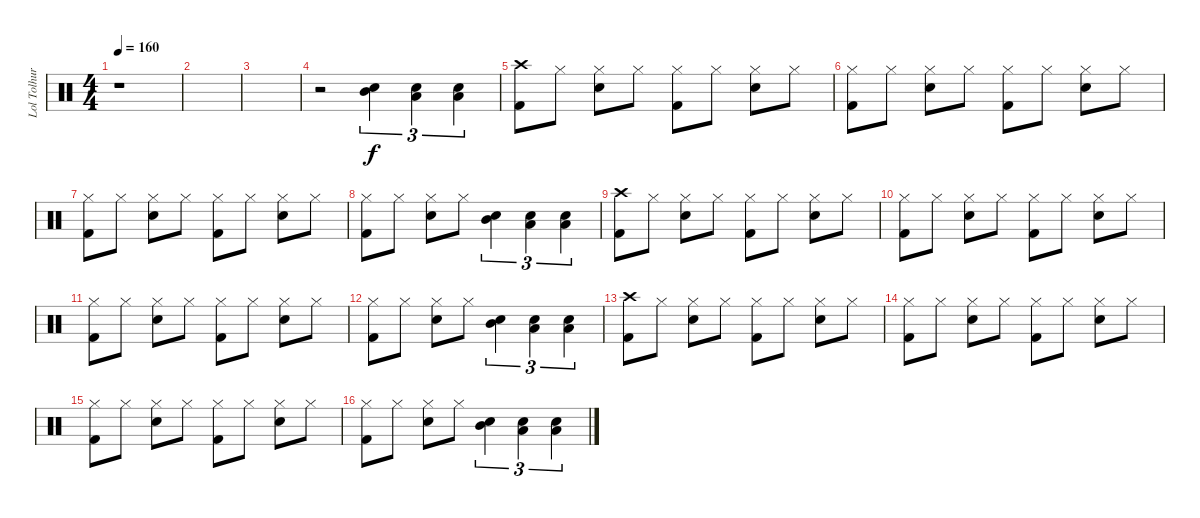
\track ("Lol Tolhurst drums" "Lol Tolhur") {instrument percussion}
\staff {score}
\articulation defaults
\ts (4 4)
\section ("" "")
\tempo 160
\clef neutral
\ks c
r.1{dy f} |
\section ("" "")
|
\section ("" "")
|
r.2 ("Mid Tom (hit)" "Snare (hit) 2").4{tu (3 2)} ("Low Tom (hit)" "Snare (hit) 2").4{tu (3 2)} ("Low Floor Tom (hit)" "Snare (hit) 2").4{tu (3 2)} |
("Crash high (hit)" "Kick (hit) 2").8 "Hi-Hat (closed)".8 ("Hi-Hat (closed)" "Snare (hit) 2").8 "Hi-Hat (closed)".8 ("Hi-Hat (closed)" "Kick (hit) 2").8 "Hi-Hat (closed)".8 ("Hi-Hat (closed)" "Snare (hit) 2").8 "Hi-Hat (closed)".8 |
("Hi-Hat (closed)" "Kick (hit) 2").8 "Hi-Hat (closed)".8 ("Hi-Hat (closed)" "Snare (hit) 2").8 "Hi-Hat (closed)".8 ("Hi-Hat (closed)" "Kick (hit) 2").8 "Hi-Hat (closed)".8 ("Hi-Hat (closed)" "Snare (hit) 2").8 "Hi-Hat (closed)".8 |
("Hi-Hat (closed)" "Kick (hit) 2").8 "Hi-Hat (closed)".8 ("Hi-Hat (closed)" "Snare (hit) 2").8 "Hi-Hat (closed)".8 ("Hi-Hat (closed)" "Kick (hit) 2").8 "Hi-Hat (closed)".8 ("Hi-Hat (closed)" "Snare (hit) 2").8 "Hi-Hat (closed)".8 |
("Hi-Hat (closed)" "Kick (hit) 2").8 "Hi-Hat (closed)".8 ("Hi-Hat (closed)" "Snare (hit) 2").8 "Hi-Hat (closed)".8 ("Mid Tom (hit)" "Snare (hit) 2").4{tu (3 2)} ("Low Tom (hit)" "Snare (hit) 2").4{tu (3 2)} ("Low Floor Tom (hit)" "Snare (hit) 2").4{tu (3 2)} |
("Crash high (hit)" "Kick (hit) 2").8 "Hi-Hat (closed)".8 ("Hi-Hat (closed)" "Snare (hit) 2").8 "Hi-Hat (closed)".8 ("Hi-Hat (closed)" "Kick (hit) 2").8 "Hi-Hat (closed)".8 ("Hi-Hat (closed)" "Snare (hit) 2").8 "Hi-Hat (closed)".8 |
("Hi-Hat (closed)" "Kick (hit) 2").8 "Hi-Hat (closed)".8 ("Hi-Hat (closed)" "Snare (hit) 2").8 "Hi-Hat (closed)".8 ("Hi-Hat (closed)" "Kick (hit) 2").8 "Hi-Hat (closed)".8 ("Hi-Hat (closed)" "Snare (hit) 2").8 "Hi-Hat (closed)".8 |
("Hi-Hat (closed)" "Kick (hit) 2").8 "Hi-Hat (closed)".8 ("Hi-Hat (closed)" "Snare (hit) 2").8 "Hi-Hat (closed)".8 ("Hi-Hat (closed)" "Kick (hit) 2").8 "Hi-Hat (closed)".8 ("Hi-Hat (closed)" "Snare (hit) 2").8 "Hi-Hat (closed)".8 |
("Hi-Hat (closed)" "Kick (hit) 2").8 "Hi-Hat (closed)".8 ("Hi-Hat (closed)" "Snare (hit) 2").8 "Hi-Hat (closed)".8 ("Mid Tom (hit)" "Snare (hit) 2").4{tu (3 2)} ("Low Tom (hit)" "Snare (hit) 2").4{tu (3 2)} ("Low Floor Tom (hit)" "Snare (hit) 2").4{tu (3 2)} |
("Crash high (hit)" "Kick (hit) 2").8 "Hi-Hat (closed)".8 ("Hi-Hat (closed)" "Snare (hit) 2").8 "Hi-Hat (closed)".8 ("Hi-Hat (closed)" "Kick (hit) 2").8 "Hi-Hat (closed)".8 ("Hi-Hat (closed)" "Snare (hit) 2").8 "Hi-Hat (closed)".8 |
("Hi-Hat (closed)" "Kick (hit) 2").8 "Hi-Hat (closed)".8 ("Hi-Hat (closed)" "Snare (hit) 2").8 "Hi-Hat (closed)".8 ("Hi-Hat (closed)" "Kick (hit) 2").8 "Hi-Hat (closed)".8 ("Hi-Hat (closed)" "Snare (hit) 2").8 "Hi-Hat (closed)".8 |
("Hi-Hat (closed)" "Kick (hit) 2").8 "Hi-Hat (closed)".8 ("Hi-Hat (closed)" "Snare (hit) 2").8 "Hi-Hat (closed)".8 ("Hi-Hat (closed)" "Kick (hit) 2").8 "Hi-Hat (closed)".8 ("Hi-Hat (closed)" "Snare (hit) 2").8 "Hi-Hat (closed)".8 |
("Hi-Hat (closed)" "Kick (hit) 2").8 "Hi-Hat (closed)".8 ("Hi-Hat (closed)" "Snare (hit) 2").8 "Hi-Hat (closed)".8 ("Mid Tom (hit)" "Snare (hit) 2").4{tu (3 2)} ("Low Tom (hit)" "Snare (hit) 2").4{tu (3 2)} ("Low Floor Tom (hit)" "Snare (hit) 2").4{tu (3 2)}
